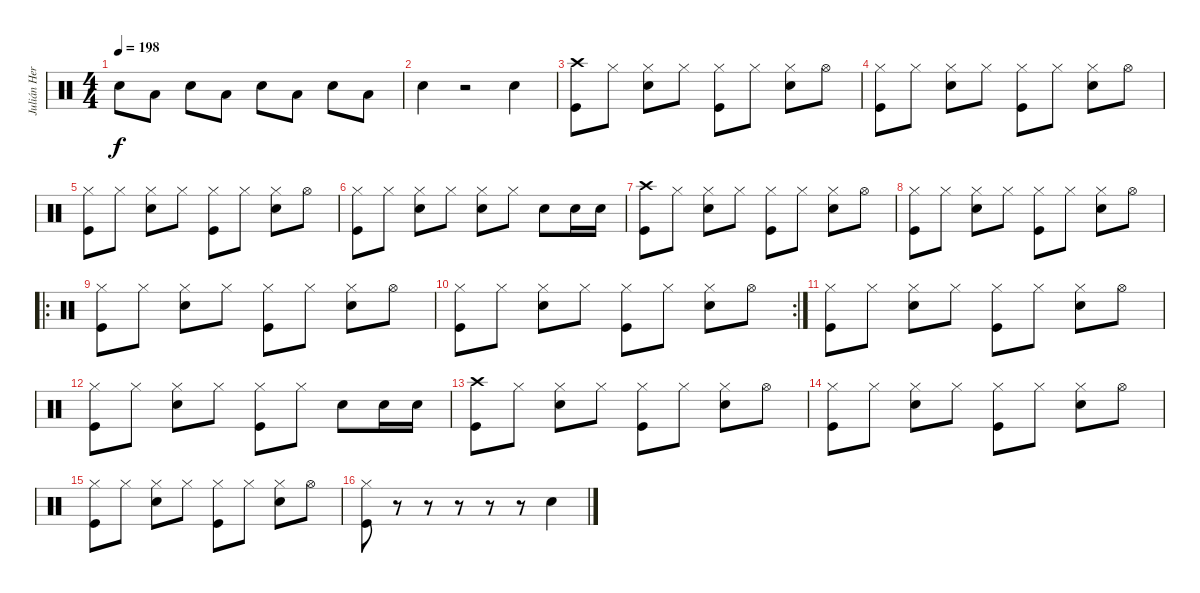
\track ("Julián Hernández - Batería" "Julián Her") {instrument percussion}
\staff {score}
\articulation defaults
\ts (4 4)
\tempo 198
\clef neutral
\ks c "Electric Snare (hit)".8{dy f} "Low Floor Tom (hit)".8 "Electric Snare (hit)".8 "Low Floor Tom (hit)".8 "Electric Snare (hit)".8 "Low Floor Tom (hit)".8 "Electric Snare (hit)".8 "Low Floor Tom (hit)".8
|
"Electric Snare (hit)".4 r.2 "Electric Snare (hit)".4 |
("Crash high (hit)" "Kick (hit)").8 "Hi-Hat (closed)".8 ("Hi-Hat (closed)" "Electric Snare (hit)").8 "Hi-Hat (closed)".8 ("Hi-Hat (closed)" "Kick (hit)").8 "Hi-Hat (closed)".8 ("Hi-Hat (closed)" "Electric Snare (hit)").8 "Hi-Hat (open)".8 |
("Hi-Hat (closed)" "Kick (hit)").8 "Hi-Hat (closed)".8 ("Hi-Hat (closed)" "Electric Snare (hit)").8 "Hi-Hat (closed)".8 ("Hi-Hat (closed)" "Kick (hit)").8 "Hi-Hat (closed)".8 ("Hi-Hat (closed)" "Electric Snare (hit)").8 "Hi-Hat (open)".8 |
("Hi-Hat (closed)" "Kick (hit)").8 "Hi-Hat (closed)".8 ("Hi-Hat (closed)" "Electric Snare (hit)").8 "Hi-Hat (closed)".8 ("Hi-Hat (closed)" "Kick (hit)").8 "Hi-Hat (closed)".8 ("Hi-Hat (closed)" "Electric Snare (hit)").8 "Hi-Hat (open)".8 |
("Hi-Hat (closed)" "Kick (hit)").8 "Hi-Hat (closed)".8 ("Hi-Hat (closed)" "Electric Snare (hit)").8 "Hi-Hat (closed)".8 ("Hi-Hat (closed)" "Electric Snare (hit)").8 "Hi-Hat (closed)".8 "Electric Snare (hit)".8 "Electric Snare (hit)".16 "Electric Snare (hit)".16 |
("Crash high (hit)" "Kick (hit)").8 "Hi-Hat (closed)".8 ("Hi-Hat (closed)" "Electric Snare (hit)").8 "Hi-Hat (closed)".8 ("Hi-Hat (closed)" "Kick (hit)").8 "Hi-Hat (closed)".8 ("Hi-Hat (closed)" "Electric Snare (hit)").8 "Hi-Hat (open)".8 |
("Hi-Hat (closed)" "Kick (hit)").8 "Hi-Hat (closed)".8 ("Hi-Hat (closed)" "Electric Snare (hit)").8 "Hi-Hat (closed)".8 ("Hi-Hat (closed)" "Kick (hit)").8 "Hi-Hat (closed)".8 ("Hi-Hat (closed)" "Electric Snare (hit)").8 "Hi-Hat (open)".8 |
\ro
("Hi-Hat (closed)" "Kick (hit)").8 "Hi-Hat (closed)".8 ("Hi-Hat (closed)" "Electric Snare (hit)").8 "Hi-Hat (closed)".8 ("Hi-Hat (closed)" "Kick (hit)").8 "Hi-Hat (closed)".8 ("Hi-Hat (closed)" "Electric Snare (hit)").8 "Hi-Hat (open)".8 |
\rc 2
("Hi-Hat (closed)" "Kick (hit)").8 "Hi-Hat (closed)".8 ("Hi-Hat (closed)" "Electric Snare (hit)").8 "Hi-Hat (closed)".8 ("Hi-Hat (closed)" "Kick (hit)").8 "Hi-Hat (closed)".8 ("Hi-Hat (closed)" "Electric Snare (hit)").8 "Hi-Hat (open)".8 |
("Hi-Hat (closed)" "Kick (hit)").8 "Hi-Hat (closed)".8 ("Hi-Hat (closed)" "Electric Snare (hit)").8 "Hi-Hat (closed)".8 ("Hi-Hat (closed)" "Kick (hit)").8 "Hi-Hat (closed)".8 ("Hi-Hat (closed)" "Electric Snare (hit)").8 "Hi-Hat (open)".8 |
("Hi-Hat (closed)" "Kick (hit)").8 "Hi-Hat (closed)".8 ("Hi-Hat (closed)" "Electric Snare (hit)").8 "Hi-Hat (closed)".8 ("Hi-Hat (closed)" "Kick (hit)").8 "Hi-Hat (closed)".8 "Electric Snare (hit)".8 "Electric Snare (hit)".16 "Electric Snare (hit)".16 |
("Crash high (hit)" "Kick (hit)").8 "Hi-Hat (closed)".8 ("Hi-Hat (closed)" "Electric Snare (hit)").8 "Hi-Hat (closed)".8 ("Hi-Hat (closed)" "Kick (hit)").8 "Hi-Hat (closed)".8 ("Hi-Hat (closed)" "Electric Snare (hit)").8 "Hi-Hat (open)".8 |
("Hi-Hat (closed)" "Kick (hit)").8 "Hi-Hat (closed)".8 ("Hi-Hat (closed)" "Electric Snare (hit)").8 "Hi-Hat (closed)".8 ("Hi-Hat (closed)" "Kick (hit)").8 "Hi-Hat (closed)".8 ("Hi-Hat (closed)" "Electric Snare (hit)").8 "Hi-Hat (open)".8 |
("Hi-Hat (closed)" "Kick (hit)").8 "Hi-Hat (closed)".8 ("Hi-Hat (closed)" "Electric Snare (hit)").8 "Hi-Hat (closed)".8 ("Hi-Hat (closed)" "Kick (hit)").8 "Hi-Hat (closed)".8 ("Hi-Hat (closed)" "Electric Snare (hit)").8 "Hi-Hat (open)".8 |
("Hi-Hat (closed)" "Kick (hit)").8 r.8 r.8 r.8 r.8 r.8 "Electric Snare (hit)".4
